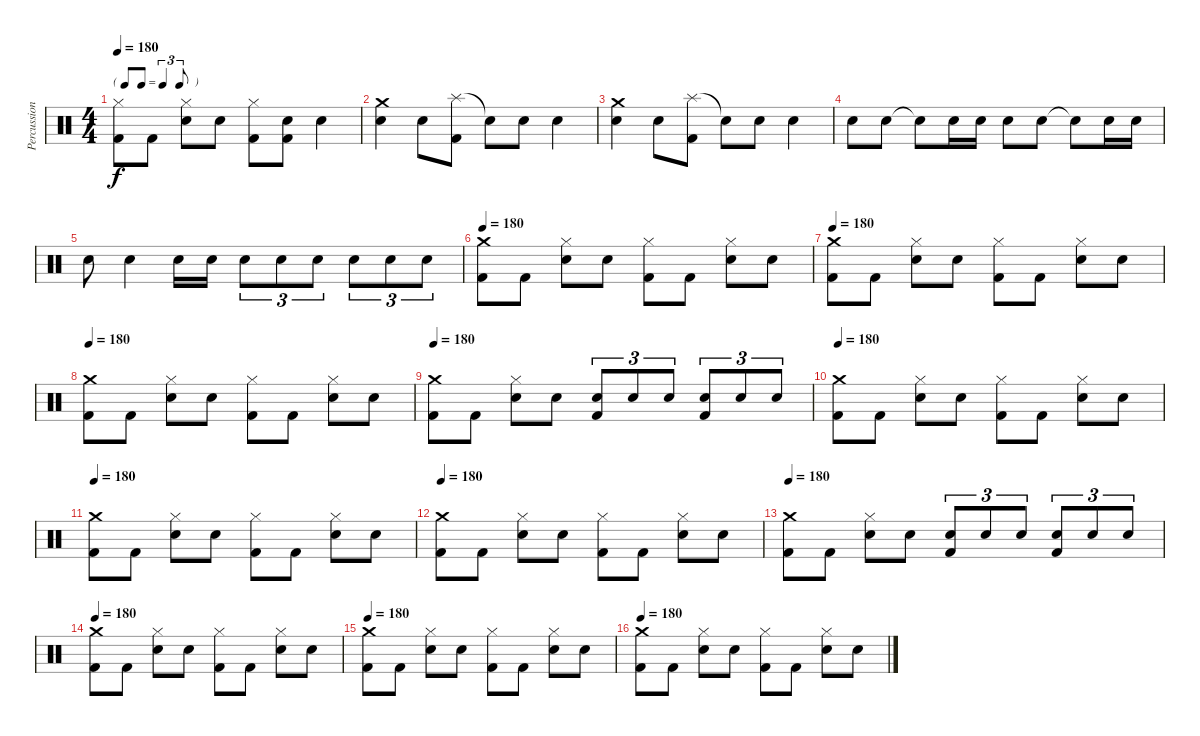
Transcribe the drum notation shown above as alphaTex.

\track ("Percussions" "Percussion") {instrument percussion}
\staff {score}
\articulation defaults
\ts (4 4)
\tf triplet8th
\tempo 180
\clef neutral
\ks c
("Hi-Hat (closed)" "Kick (hit) 2").8{dy f} "Kick (hit) 2".8 ("Hi-Hat (closed)" "Electric Snare (hit)").8 "Electric Snare (hit)".8 ("Hi-Hat (closed)" "Kick (hit) 2").8 ("Electric Snare (hit)" "Kick (hit) 2").8 "Electric Snare (hit)".4 |
("Crash medium (hit)" "Electric Snare (hit)").4 "Electric Snare (hit)".8 ("Splash (hit)" "Kick (hit) 2").8 "Snare (hit)"{t}.8 "Electric Snare (hit)".8 "Electric Snare (hit)".4 |
("Crash medium (hit)" "Electric Snare (hit)").4 "Electric Snare (hit)".8 ("Splash (hit)" "Kick (hit) 2").8 "Snare (hit)"{t}.8 "Electric Snare (hit)".8 "Electric Snare (hit)".4 |
"Electric Snare (hit)".8 "Electric Snare (hit)".8 "Snare (hit)"{t}.8 "Electric Snare (hit)".16 "Electric Snare (hit)".16 "Electric Snare (hit)".8 "Electric Snare (hit)".8 "Snare (hit)"{t}.8 "Electric Snare (hit)".16 "Electric Snare (hit)".16 |
"Electric Snare (hit)".8 "Electric Snare (hit)".4 "Electric Snare (hit)".16 "Electric Snare (hit)".16 "Electric Snare (hit)".8{tu (3 2)} "Electric Snare (hit)".8{tu (3 2)} "Electric Snare (hit)".8{tu (3 2)} "Electric Snare (hit)".8{tu (3 2)} "Electric Snare (hit)".8{tu (3 2)} "Electric Snare (hit)".8{tu (3 2)} |
\tempo 180
("Crash medium (hit)" "Kick (hit) 2").8 "Kick (hit) 2".8 ("Hi-Hat (closed)" "Electric Snare (hit)").8 "Electric Snare (hit)".8 ("Hi-Hat (closed)" "Kick (hit) 2").8 "Kick (hit) 2".8 ("Hi-Hat (closed)" "Electric Snare (hit)").8 "Electric Snare (hit)".8 |
\tempo 180
("Crash medium (hit)" "Kick (hit) 2").8 "Kick (hit) 2".8 ("Hi-Hat (closed)" "Electric Snare (hit)").8 "Electric Snare (hit)".8 ("Hi-Hat (closed)" "Kick (hit) 2").8 "Kick (hit) 2".8 ("Hi-Hat (closed)" "Electric Snare (hit)").8 "Electric Snare (hit)".8 |
\tempo 180
("Crash medium (hit)" "Kick (hit) 2").8 "Kick (hit) 2".8 ("Hi-Hat (closed)" "Electric Snare (hit)").8 "Electric Snare (hit)".8 ("Hi-Hat (closed)" "Kick (hit) 2").8 "Kick (hit) 2".8 ("Hi-Hat (closed)" "Electric Snare (hit)").8 "Electric Snare (hit)".8 |
\tempo 180
("Crash medium (hit)" "Kick (hit) 2").8 "Kick (hit) 2".8 ("Hi-Hat (closed)" "Electric Snare (hit)").8 "Electric Snare (hit)".8 ("Electric Snare (hit)" "Kick (hit) 2").8{tu (3 2)} "Electric Snare (hit)".8{tu (3 2)} "Electric Snare (hit)".8{tu (3 2)} ("Electric Snare (hit)" "Kick (hit) 2").8{tu (3 2)} "Electric Snare (hit)".8{tu (3 2)} "Electric Snare (hit)".8{tu (3 2)} |
\tempo 180
("Crash medium (hit)" "Kick (hit) 2").8 "Kick (hit) 2".8 ("Hi-Hat (closed)" "Electric Snare (hit)").8 "Electric Snare (hit)".8 ("Hi-Hat (closed)" "Kick (hit) 2").8 "Kick (hit) 2".8 ("Hi-Hat (closed)" "Electric Snare (hit)").8 "Electric Snare (hit)".8 |
\tempo 180
("Crash medium (hit)" "Kick (hit) 2").8 "Kick (hit) 2".8 ("Hi-Hat (closed)" "Electric Snare (hit)").8 "Electric Snare (hit)".8 ("Hi-Hat (closed)" "Kick (hit) 2").8 "Kick (hit) 2".8 ("Hi-Hat (closed)" "Electric Snare (hit)").8 "Electric Snare (hit)".8 |
\tempo 180
("Crash medium (hit)" "Kick (hit) 2").8 "Kick (hit) 2".8 ("Hi-Hat (closed)" "Electric Snare (hit)").8 "Electric Snare (hit)".8 ("Hi-Hat (closed)" "Kick (hit) 2").8 "Kick (hit) 2".8 ("Hi-Hat (closed)" "Electric Snare (hit)").8 "Electric Snare (hit)".8 |
\tempo 180
("Crash medium (hit)" "Kick (hit) 2").8 "Kick (hit) 2".8 ("Hi-Hat (closed)" "Electric Snare (hit)").8 "Electric Snare (hit)".8 ("Electric Snare (hit)" "Kick (hit) 2").8{tu (3 2)} "Electric Snare (hit)".8{tu (3 2)} "Electric Snare (hit)".8{tu (3 2)} ("Electric Snare (hit)" "Kick (hit) 2").8{tu (3 2)} "Electric Snare (hit)".8{tu (3 2)} "Electric Snare (hit)".8{tu (3 2)} |
\tempo 180
("Crash medium (hit)" "Kick (hit) 2").8 "Kick (hit) 2".8 ("Hi-Hat (closed)" "Electric Snare (hit)").8 "Electric Snare (hit)".8 ("Hi-Hat (closed)" "Kick (hit) 2").8 "Kick (hit) 2".8 ("Hi-Hat (closed)" "Electric Snare (hit)").8 "Electric Snare (hit)".8 |
\tempo 180
("Crash medium (hit)" "Kick (hit) 2").8 "Kick (hit) 2".8 ("Hi-Hat (closed)" "Electric Snare (hit)").8 "Electric Snare (hit)".8 ("Hi-Hat (closed)" "Kick (hit) 2").8 "Kick (hit) 2".8 ("Hi-Hat (closed)" "Electric Snare (hit)").8 "Electric Snare (hit)".8 |
\tempo 180
("Crash medium (hit)" "Kick (hit) 2").8 "Kick (hit) 2".8 ("Hi-Hat (closed)" "Electric Snare (hit)").8 "Electric Snare (hit)".8 ("Hi-Hat (closed)" "Kick (hit) 2").8 "Kick (hit) 2".8 ("Hi-Hat (closed)" "Electric Snare (hit)").8 "Electric Snare (hit)".8
